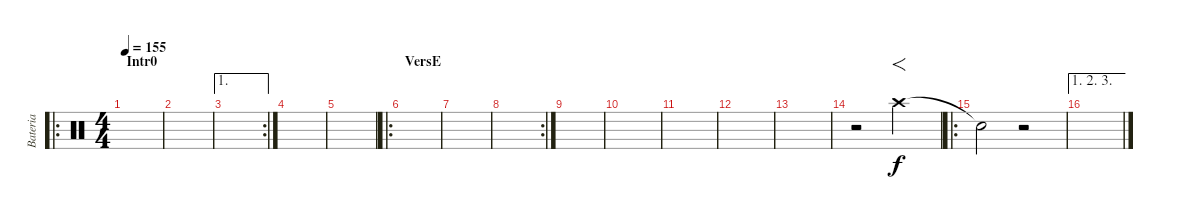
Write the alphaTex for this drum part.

\track ("Bateria" "Bateria") {instrument percussion}
\staff {score}
\articulation defaults
\ro
\ts (4 4)
\section ("" "Intr0")
\tempo 155
\clef neutral
\ks c
|
|
\ae 1
\rc 2
|
|
|
\ro
\section ("" "VersE")
|
|
\rc 2
|
|
|
|
|
|
r.2 "Crash high (hit)".2{f} |
\ro "Snare (hit)"{t}.2
r.2 |
\ae (1 2 3)
